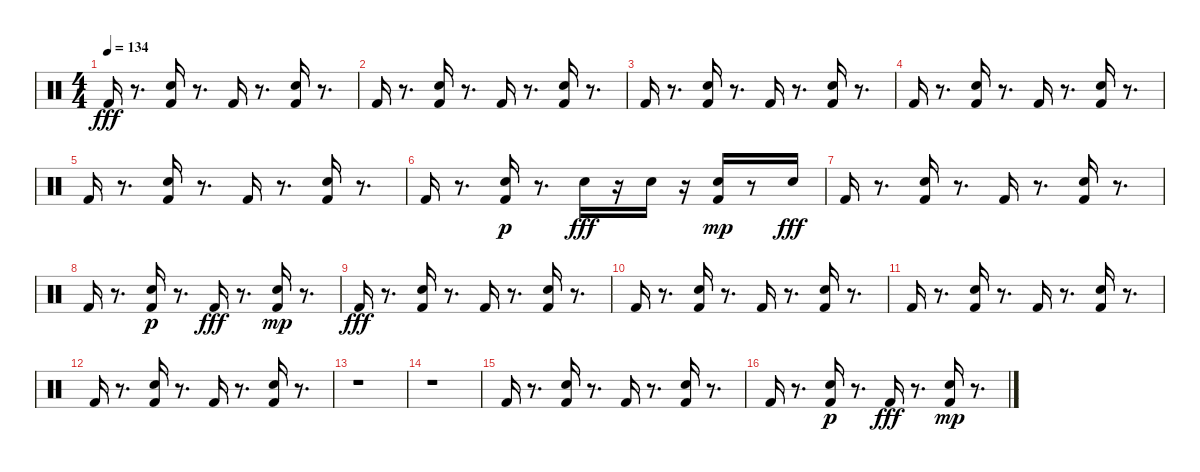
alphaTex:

\track "" {instrument percussion}
\staff {score}
\articulation defaults
\ts (4 4)
\tempo 134
\clef neutral
\ks c "Kick (hit) 2".16{dy fff}
r.8{d} ("Kick (hit) 2" "Snare (hit) 2").16 r.8{d} "Kick (hit) 2".16 r.8{d} ("Kick (hit) 2" "Snare (hit) 2").16 r.8{d} |
"Kick (hit) 2".16 r.8{d} ("Kick (hit) 2" "Snare (hit) 2").16 r.8{d} "Kick (hit) 2".16 r.8{d} ("Kick (hit) 2" "Snare (hit) 2").16 r.8{d} |
"Kick (hit) 2".16 r.8{d} ("Kick (hit) 2" "Snare (hit) 2").16 r.8{d} "Kick (hit) 2".16 r.8{d} ("Kick (hit) 2" "Snare (hit) 2").16 r.8{d} |
"Kick (hit) 2".16 r.8{d} ("Kick (hit) 2" "Snare (hit) 2").16 r.8{d} "Kick (hit) 2".16 r.8{d} ("Kick (hit) 2" "Snare (hit) 2").16 r.8{d} |
"Kick (hit) 2".16 r.8{d} ("Kick (hit) 2" "Snare (hit) 2").16 r.8{d} "Kick (hit) 2".16 r.8{d} ("Kick (hit) 2" "Snare (hit) 2").16 r.8{d} |
"Kick (hit) 2".16 r.8{d} ("Snare (hit) 2" "Kick (hit) 2").16{dy p} r.8{d} "Snare (hit) 2".16{dy fff} r.16 "Snare (hit) 2".16 r.16 ("Snare (hit) 2" "Kick (hit) 2").16{dy mp} r.8 "Snare (hit) 2".16{dy fff} |
"Kick (hit) 2".16 r.8{d} ("Kick (hit) 2" "Snare (hit) 2").16 r.8{d} "Kick (hit) 2".16 r.8{d} ("Kick (hit) 2" "Snare (hit) 2").16 r.8{d} |
"Kick (hit) 2".16 r.8{d} ("Snare (hit) 2" "Kick (hit) 2").16{dy p} r.8{d} "Kick (hit) 2".16{dy fff} r.8{d} ("Snare (hit) 2" "Kick (hit) 2").16{dy mp} r.8{d} |
"Kick (hit) 2".16{dy fff} r.8{d} ("Kick (hit) 2" "Snare (hit) 2").16 r.8{d} "Kick (hit) 2".16 r.8{d} ("Kick (hit) 2" "Snare (hit) 2").16 r.8{d} |
"Kick (hit) 2".16 r.8{d} ("Kick (hit) 2" "Snare (hit) 2").16 r.8{d} "Kick (hit) 2".16 r.8{d} ("Kick (hit) 2" "Snare (hit) 2").16 r.8{d} |
"Kick (hit) 2".16 r.8{d} ("Kick (hit) 2" "Snare (hit) 2").16 r.8{d} "Kick (hit) 2".16 r.8{d} ("Kick (hit) 2" "Snare (hit) 2").16 r.8{d} |
"Kick (hit) 2".16 r.8{d} ("Kick (hit) 2" "Snare (hit) 2").16 r.8{d} "Kick (hit) 2".16 r.8{d} ("Kick (hit) 2" "Snare (hit) 2").16 r.8{d} |
r.1 |
r.1 |
"Kick (hit) 2".16 r.8{d} ("Kick (hit) 2" "Snare (hit) 2").16 r.8{d} "Kick (hit) 2".16 r.8{d} ("Kick (hit) 2" "Snare (hit) 2").16 r.8{d} |
"Kick (hit) 2".16 r.8{d} ("Snare (hit) 2" "Kick (hit) 2").16{dy p} r.8{d} "Kick (hit) 2".16{dy fff} r.8{d} ("Snare (hit) 2" "Kick (hit) 2").16{dy mp} r.8{d}
